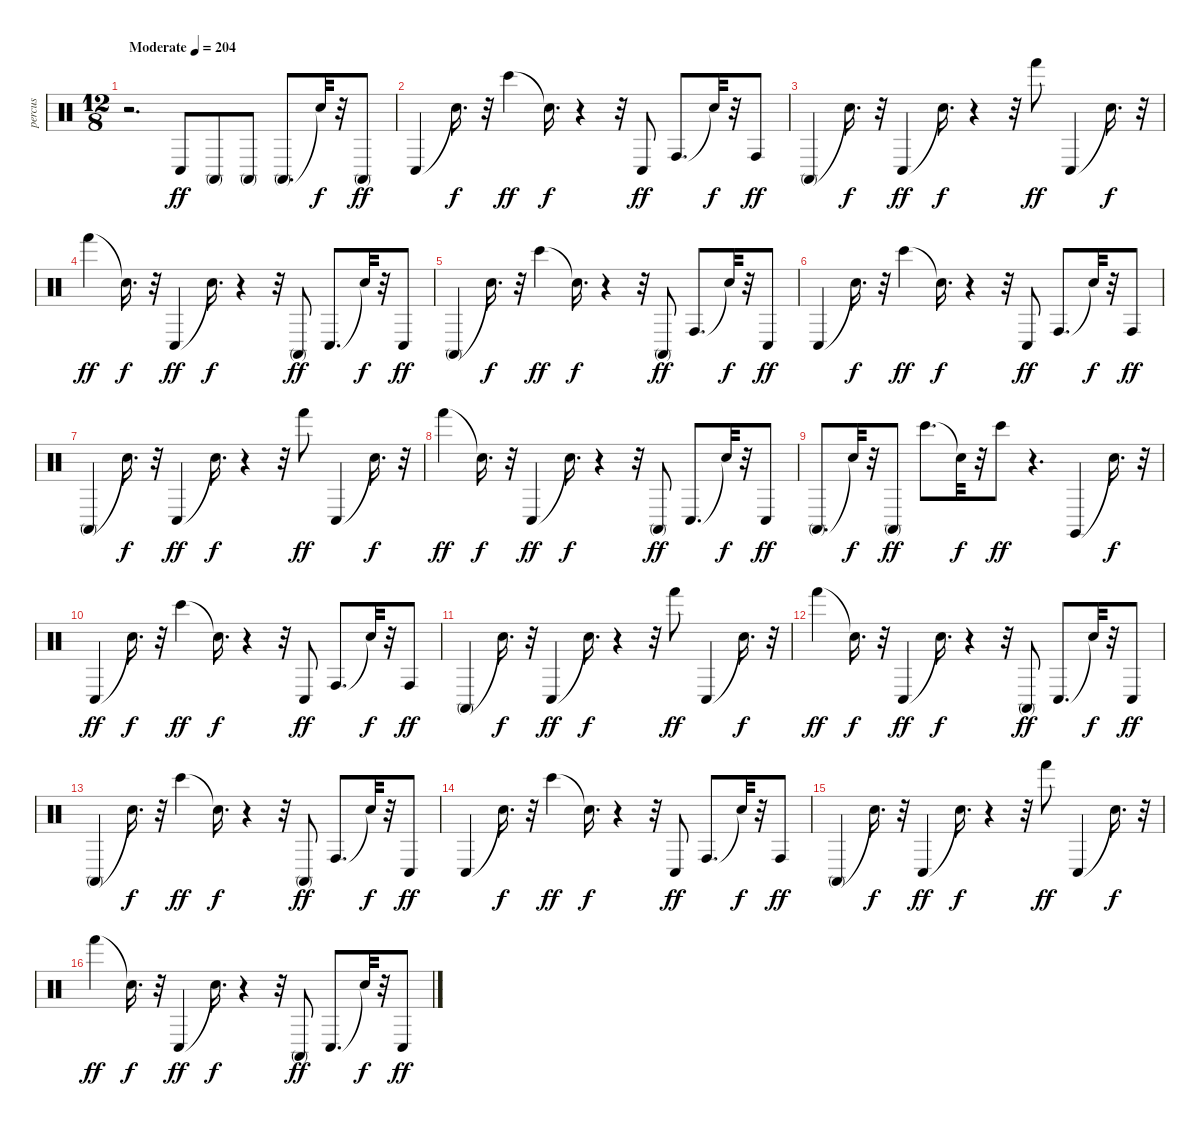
\track ("percus" "percus") {instrument percussion}
\staff {score}
\articulation defaults
\ts (12 8)
\tempo (204 "Moderate")
\clef neutral
\ks c
r.2{d dy ff} "Conga low (hit)".8 "Conga high (mute)".8 "Conga high (mute)".8 "Conga high (mute)".8{d} "Snare (hit)"{t}.32{dy f} r.32 "Conga high (mute)".8{dy ff} |
"Conga low (hit)".4 "Snare (hit)"{t}.16{d dy f} r.32 "Bongo High (hit)".4{dy ff} "Snare (hit)"{t}.16{d dy f} r.4 r.32 "Conga low (hit)".8{dy ff} "Conga high (hit)".8{d} "Snare (hit)"{t}.32{dy f} r.32 "Conga high (hit)".8{dy ff} |
"Conga high (mute)".4 "Snare (hit)"{t}.16{d dy f} r.32 "Conga low (hit)".4{dy ff} "Snare (hit)"{t}.16{d dy f} r.4 r.32 "Hand (hit)".8{dy ff} "Conga low (hit)".4 "Snare (hit)"{t}.16{d dy f} r.32 |
"Hand (hit)".4{dy ff} "Snare (hit)"{t}.16{d dy f} r.32 "Conga low (hit)".4{dy ff} "Snare (hit)"{t}.16{d dy f} r.4 r.32 "Conga high (mute)".8{dy ff} "Conga low (hit)".8{d} "Snare (hit)"{t}.32{dy f} r.32 "Conga low (hit)".8{dy ff} |
"Conga high (mute)".4 "Snare (hit)"{t}.16{d dy f} r.32 "Bongo High (hit)".4{dy ff} "Snare (hit)"{t}.16{d dy f} r.4 r.32 "Conga high (mute)".8{dy ff} "Conga high (hit)".8{d} "Snare (hit)"{t}.32{dy f} r.32 "Conga low (hit)".8{dy ff} |
"Conga low (hit)".4 "Snare (hit)"{t}.16{d dy f} r.32 "Bongo High (hit)".4{dy ff} "Snare (hit)"{t}.16{d dy f} r.4 r.32 "Conga low (hit)".8{dy ff} "Conga high (hit)".8{d} "Snare (hit)"{t}.32{dy f} r.32 "Conga high (hit)".8{dy ff} |
"Conga high (mute)".4 "Snare (hit)"{t}.16{d dy f} r.32 "Conga low (hit)".4{dy ff} "Snare (hit)"{t}.16{d dy f} r.4 r.32 "Hand (hit)".8{dy ff} "Conga low (hit)".4 "Snare (hit)"{t}.16{d dy f} r.32 |
"Hand (hit)".4{dy ff} "Snare (hit)"{t}.16{d dy f} r.32 "Conga low (hit)".4{dy ff} "Snare (hit)"{t}.16{d dy f} r.4 r.32 "Conga high (mute)".8{dy ff} "Conga low (hit)".8{d} "Snare (hit)"{t}.32{dy f} r.32 "Conga low (hit)".8{dy ff} |
"Conga high (mute)".8{d} "Snare (hit)"{t}.32{dy f} r.32 "Conga high (mute)".8{dy ff} "Bongo High (hit)".8{d} "Snare (hit)"{t}.32{dy f} r.32 "Bongo High (hit)".8{dy ff} r.4{d} "Claves (hit)".4 "Snare (hit)"{t}.16{d dy f} r.32 |
"Conga low (hit)".4{dy ff} "Snare (hit)"{t}.16{d dy f} r.32 "Bongo High (hit)".4{dy ff} "Snare (hit)"{t}.16{d dy f} r.4 r.32 "Conga low (hit)".8{dy ff} "Conga high (hit)".8{d} "Snare (hit)"{t}.32{dy f} r.32 "Conga high (hit)".8{dy ff} |
"Conga high (mute)".4 "Snare (hit)"{t}.16{d dy f} r.32 "Conga low (hit)".4{dy ff} "Snare (hit)"{t}.16{d dy f} r.4 r.32 "Hand (hit)".8{dy ff} "Conga low (hit)".4 "Snare (hit)"{t}.16{d dy f} r.32 |
"Hand (hit)".4{dy ff} "Snare (hit)"{t}.16{d dy f} r.32 "Conga low (hit)".4{dy ff} "Snare (hit)"{t}.16{d dy f} r.4 r.32 "Conga high (mute)".8{dy ff} "Conga low (hit)".8{d} "Snare (hit)"{t}.32{dy f} r.32 "Conga low (hit)".8{dy ff} |
"Conga high (mute)".4 "Snare (hit)"{t}.16{d dy f} r.32 "Bongo High (hit)".4{dy ff} "Snare (hit)"{t}.16{d dy f} r.4 r.32 "Conga high (mute)".8{dy ff} "Conga high (hit)".8{d} "Snare (hit)"{t}.32{dy f} r.32 "Conga low (hit)".8{dy ff} |
"Conga low (hit)".4 "Snare (hit)"{t}.16{d dy f} r.32 "Bongo High (hit)".4{dy ff} "Snare (hit)"{t}.16{d dy f} r.4 r.32 "Conga low (hit)".8{dy ff} "Conga high (hit)".8{d} "Snare (hit)"{t}.32{dy f} r.32 "Conga high (hit)".8{dy ff} |
"Conga high (mute)".4 "Snare (hit)"{t}.16{d dy f} r.32 "Conga low (hit)".4{dy ff} "Snare (hit)"{t}.16{d dy f} r.4 r.32 "Hand (hit)".8{dy ff} "Conga low (hit)".4 "Snare (hit)"{t}.16{d dy f} r.32 |
"Hand (hit)".4{dy ff} "Snare (hit)"{t}.16{d dy f} r.32 "Conga low (hit)".4{dy ff} "Snare (hit)"{t}.16{d dy f} r.4 r.32 "Conga high (mute)".8{dy ff} "Conga low (hit)".8{d} "Snare (hit)"{t}.32{dy f} r.32 "Conga low (hit)".8{dy ff}
